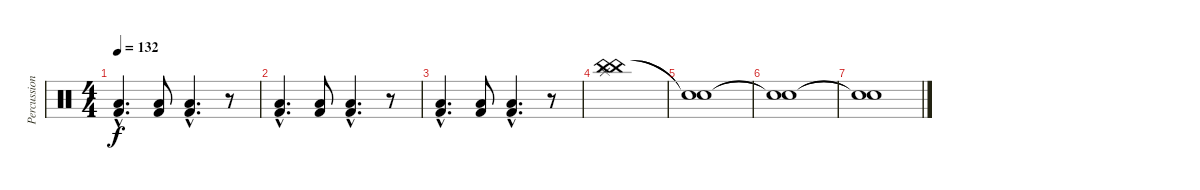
\track ("Percussioni" "Percussion") {instrument percussion}
\staff {score}
\articulation defaults
\ts (4 4)
\tempo 132
\clef neutral
\ks c
("Low Floor Tom (hit)"{hac} "Kick (hit) 2"{hac}).4{d dy f} ("Low Floor Tom (hit)" "Kick (hit) 2").8 ("Low Floor Tom (hit)"{hac} "Kick (hit) 2"{hac}).4{d} r.8 |
("Low Floor Tom (hit)"{hac} "Kick (hit) 2"{hac}).4{d} ("Low Floor Tom (hit)" "Kick (hit) 2").8 ("Low Floor Tom (hit)"{hac} "Kick (hit) 2"{hac}).4{d} r.8 |
("Low Floor Tom (hit)"{hac} "Kick (hit) 2"{hac}).4{d} ("Low Floor Tom (hit)" "Kick (hit) 2").8 ("Low Floor Tom (hit)"{hac} "Kick (hit) 2"{hac}).4{d} r.8 |
("China (hit)" "China (hit)" "Splash (hit)").1 |
("Snare (hit)"{t} "Snare (hit)"{t}).1 |
("Snare (hit)"{t} "Snare (hit)"{t}).1 |
("Snare (hit)"{t} "Snare (hit)"{t}).1
